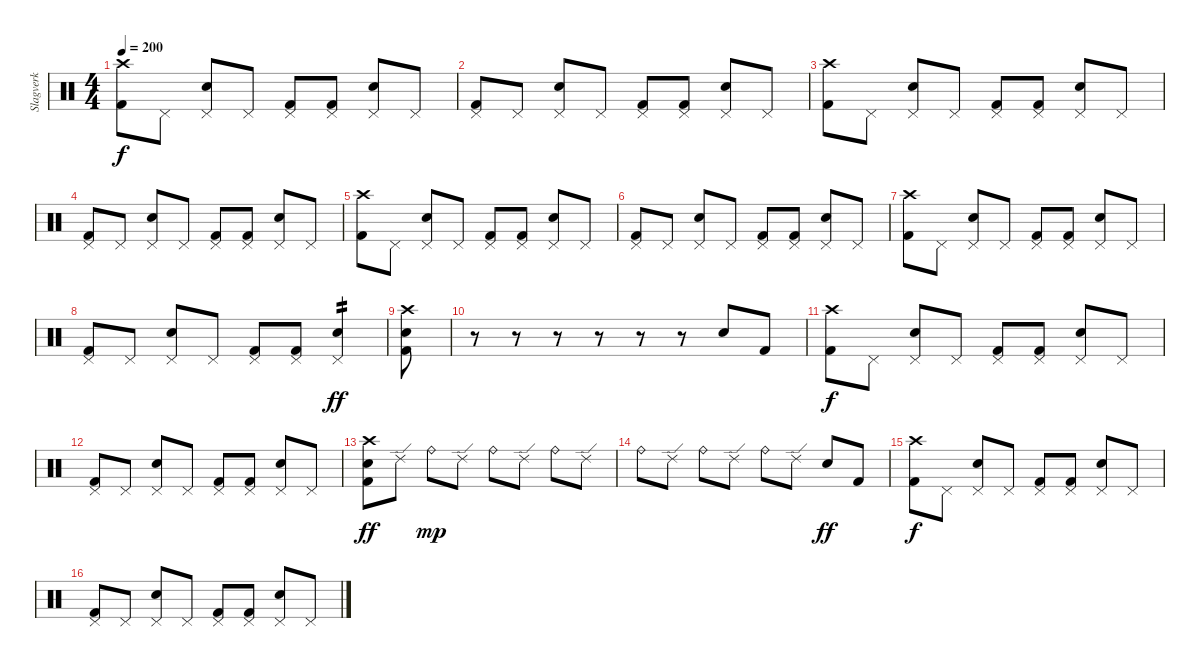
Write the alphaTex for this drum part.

\track ("Slagverk" "Slagverk") {instrument percussion}
\staff {score}
\articulation defaults
\ts (4 4)
\tempo 200
\clef neutral
\ks c
("Crash high (hit)" "Kick (hit) 2").8{dy f} "Pedal Hi-Hat (hit)".8 ("Pedal Hi-Hat (hit)" "Electric Snare (hit)").8 "Pedal Hi-Hat (hit)".8 ("Pedal Hi-Hat (hit)" "Kick (hit) 2").8 ("Pedal Hi-Hat (hit)" "Kick (hit) 2").8 ("Pedal Hi-Hat (hit)" "Electric Snare (hit)").8 "Pedal Hi-Hat (hit)".8 |
("Pedal Hi-Hat (hit)" "Kick (hit) 2").8 "Pedal Hi-Hat (hit)".8 ("Pedal Hi-Hat (hit)" "Electric Snare (hit)").8 "Pedal Hi-Hat (hit)".8 ("Pedal Hi-Hat (hit)" "Kick (hit) 2").8 ("Pedal Hi-Hat (hit)" "Kick (hit) 2").8 ("Pedal Hi-Hat (hit)" "Electric Snare (hit)").8 "Pedal Hi-Hat (hit)".8 |
("Crash high (hit)" "Kick (hit) 2").8 "Pedal Hi-Hat (hit)".8 ("Pedal Hi-Hat (hit)" "Electric Snare (hit)").8 "Pedal Hi-Hat (hit)".8 ("Pedal Hi-Hat (hit)" "Kick (hit) 2").8 ("Pedal Hi-Hat (hit)" "Kick (hit) 2").8 ("Pedal Hi-Hat (hit)" "Electric Snare (hit)").8 "Pedal Hi-Hat (hit)".8 |
("Pedal Hi-Hat (hit)" "Kick (hit) 2").8 "Pedal Hi-Hat (hit)".8 ("Pedal Hi-Hat (hit)" "Electric Snare (hit)").8 "Pedal Hi-Hat (hit)".8 ("Pedal Hi-Hat (hit)" "Kick (hit) 2").8 ("Pedal Hi-Hat (hit)" "Kick (hit) 2").8 ("Pedal Hi-Hat (hit)" "Electric Snare (hit)").8 "Pedal Hi-Hat (hit)".8 |
("Crash high (hit)" "Kick (hit) 2").8 "Pedal Hi-Hat (hit)".8 ("Pedal Hi-Hat (hit)" "Electric Snare (hit)").8 "Pedal Hi-Hat (hit)".8 ("Pedal Hi-Hat (hit)" "Kick (hit) 2").8 ("Pedal Hi-Hat (hit)" "Kick (hit) 2").8 ("Pedal Hi-Hat (hit)" "Electric Snare (hit)").8 "Pedal Hi-Hat (hit)".8 |
("Pedal Hi-Hat (hit)" "Kick (hit) 2").8 "Pedal Hi-Hat (hit)".8 ("Pedal Hi-Hat (hit)" "Electric Snare (hit)").8 "Pedal Hi-Hat (hit)".8 ("Pedal Hi-Hat (hit)" "Kick (hit) 2").8 ("Pedal Hi-Hat (hit)" "Kick (hit) 2").8 ("Pedal Hi-Hat (hit)" "Electric Snare (hit)").8 "Pedal Hi-Hat (hit)".8 |
("Crash high (hit)" "Kick (hit) 2").8 "Pedal Hi-Hat (hit)".8 ("Pedal Hi-Hat (hit)" "Electric Snare (hit)").8 "Pedal Hi-Hat (hit)".8 ("Pedal Hi-Hat (hit)" "Kick (hit) 2").8 ("Pedal Hi-Hat (hit)" "Kick (hit) 2").8 ("Pedal Hi-Hat (hit)" "Electric Snare (hit)").8 "Pedal Hi-Hat (hit)".8 |
("Pedal Hi-Hat (hit)" "Kick (hit) 2").8 "Pedal Hi-Hat (hit)".8 ("Pedal Hi-Hat (hit)" "Electric Snare (hit)").8 "Pedal Hi-Hat (hit)".8 ("Pedal Hi-Hat (hit)" "Kick (hit) 2").8 ("Pedal Hi-Hat (hit)" "Kick (hit) 2").8 ("Pedal Hi-Hat (hit)" "Electric Snare (hit)").4{tp 2 dy ff} |
("Crash high (hit)" "Electric Snare (hit)" "Kick (hit) 2").8 |
r.8 r.8 r.8 r.8 r.8 r.8 "Electric Snare (hit)".8 "Kick (hit) 2".8 |
("Crash high (hit)" "Kick (hit) 2").8{dy f} "Pedal Hi-Hat (hit)".8 ("Pedal Hi-Hat (hit)" "Electric Snare (hit)").8 "Pedal Hi-Hat (hit)".8 ("Pedal Hi-Hat (hit)" "Kick (hit) 2").8 ("Pedal Hi-Hat (hit)" "Kick (hit) 2").8 ("Pedal Hi-Hat (hit)" "Electric Snare (hit)").8 "Pedal Hi-Hat (hit)".8 |
("Pedal Hi-Hat (hit)" "Kick (hit) 2").8 "Pedal Hi-Hat (hit)".8 ("Pedal Hi-Hat (hit)" "Electric Snare (hit)").8 "Pedal Hi-Hat (hit)".8 ("Pedal Hi-Hat (hit)" "Kick (hit) 2").8 ("Pedal Hi-Hat (hit)" "Kick (hit) 2").8 ("Pedal Hi-Hat (hit)" "Electric Snare (hit)").8 "Pedal Hi-Hat (hit)".8 |
("Crash high (hit)" "Electric Snare (hit)" "Kick (hit) 2").8{dy ff} "Ride (edge) 2".8 "Ride (bell)".8{dy mp} "Ride (edge) 2".8 "Ride (bell)".8 "Ride (edge) 2".8 "Ride (bell)".8 "Ride (edge) 2".8 |
"Ride (bell)".8 "Ride (edge) 2".8 "Ride (bell)".8 "Ride (edge) 2".8 "Ride (bell)".8 "Ride (edge) 2".8 "Electric Snare (hit)".8{dy ff} "Kick (hit) 2".8 |
("Crash high (hit)" "Kick (hit) 2").8{dy f} "Pedal Hi-Hat (hit)".8 ("Pedal Hi-Hat (hit)" "Electric Snare (hit)").8 "Pedal Hi-Hat (hit)".8 ("Pedal Hi-Hat (hit)" "Kick (hit) 2").8 ("Pedal Hi-Hat (hit)" "Kick (hit) 2").8 ("Pedal Hi-Hat (hit)" "Electric Snare (hit)").8 "Pedal Hi-Hat (hit)".8 |
("Pedal Hi-Hat (hit)" "Kick (hit) 2").8 "Pedal Hi-Hat (hit)".8 ("Pedal Hi-Hat (hit)" "Electric Snare (hit)").8 "Pedal Hi-Hat (hit)".8 ("Pedal Hi-Hat (hit)" "Kick (hit) 2").8 ("Pedal Hi-Hat (hit)" "Kick (hit) 2").8 ("Pedal Hi-Hat (hit)" "Electric Snare (hit)").8 "Pedal Hi-Hat (hit)".8
